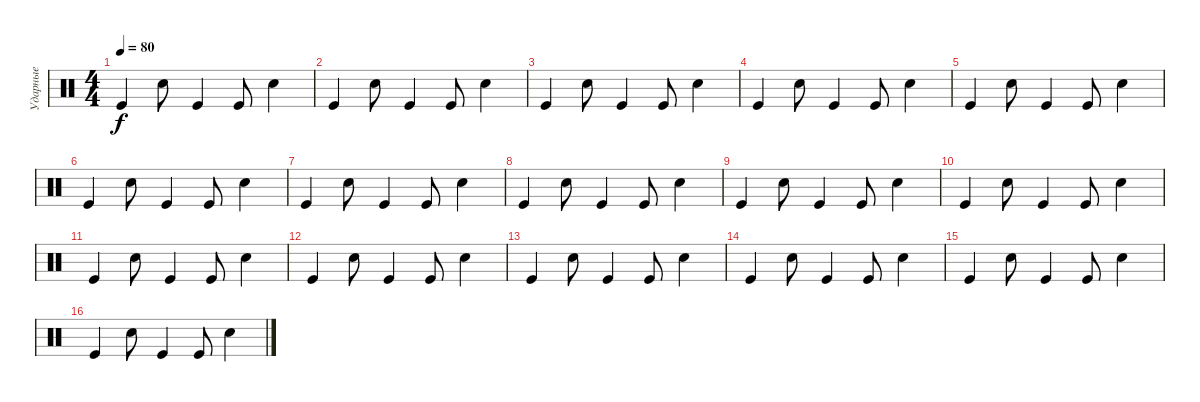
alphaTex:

\track ("Ударные" "Ударные") {instrument percussion bank 1}
\staff {score}
\articulation defaults
\ts (4 4)
\tempo 80
\clef neutral
\ks c "Kick (hit)".4{dy f} "Snare (hit) 2".8 "Kick (hit)".4 "Kick (hit)".8 "Snare (hit) 2".4
|
"Kick (hit)".4 "Snare (hit) 2".8 "Kick (hit)".4 "Kick (hit)".8 "Snare (hit) 2".4 |
"Kick (hit)".4 "Snare (hit) 2".8 "Kick (hit)".4 "Kick (hit)".8 "Snare (hit) 2".4 |
"Kick (hit)".4 "Snare (hit) 2".8 "Kick (hit)".4 "Kick (hit)".8 "Snare (hit) 2".4 |
"Kick (hit)".4 "Snare (hit) 2".8 "Kick (hit)".4 "Kick (hit)".8 "Snare (hit) 2".4 |
"Kick (hit)".4 "Snare (hit) 2".8 "Kick (hit)".4 "Kick (hit)".8 "Snare (hit) 2".4 |
"Kick (hit)".4 "Snare (hit) 2".8 "Kick (hit)".4 "Kick (hit)".8 "Snare (hit) 2".4 |
"Kick (hit)".4 "Snare (hit) 2".8 "Kick (hit)".4 "Kick (hit)".8 "Snare (hit) 2".4 |
"Kick (hit)".4 "Snare (hit) 2".8 "Kick (hit)".4 "Kick (hit)".8 "Snare (hit) 2".4 |
"Kick (hit)".4 "Snare (hit) 2".8 "Kick (hit)".4 "Kick (hit)".8 "Snare (hit) 2".4 |
"Kick (hit)".4 "Snare (hit) 2".8 "Kick (hit)".4 "Kick (hit)".8 "Snare (hit) 2".4 |
"Kick (hit)".4 "Snare (hit) 2".8 "Kick (hit)".4 "Kick (hit)".8 "Snare (hit) 2".4 |
"Kick (hit)".4 "Snare (hit) 2".8 "Kick (hit)".4 "Kick (hit)".8 "Snare (hit) 2".4 |
"Kick (hit)".4 "Snare (hit) 2".8 "Kick (hit)".4 "Kick (hit)".8 "Snare (hit) 2".4 |
"Kick (hit)".4 "Snare (hit) 2".8 "Kick (hit)".4 "Kick (hit)".8 "Snare (hit) 2".4 |
"Kick (hit)".4 "Snare (hit) 2".8 "Kick (hit)".4 "Kick (hit)".8 "Snare (hit) 2".4
